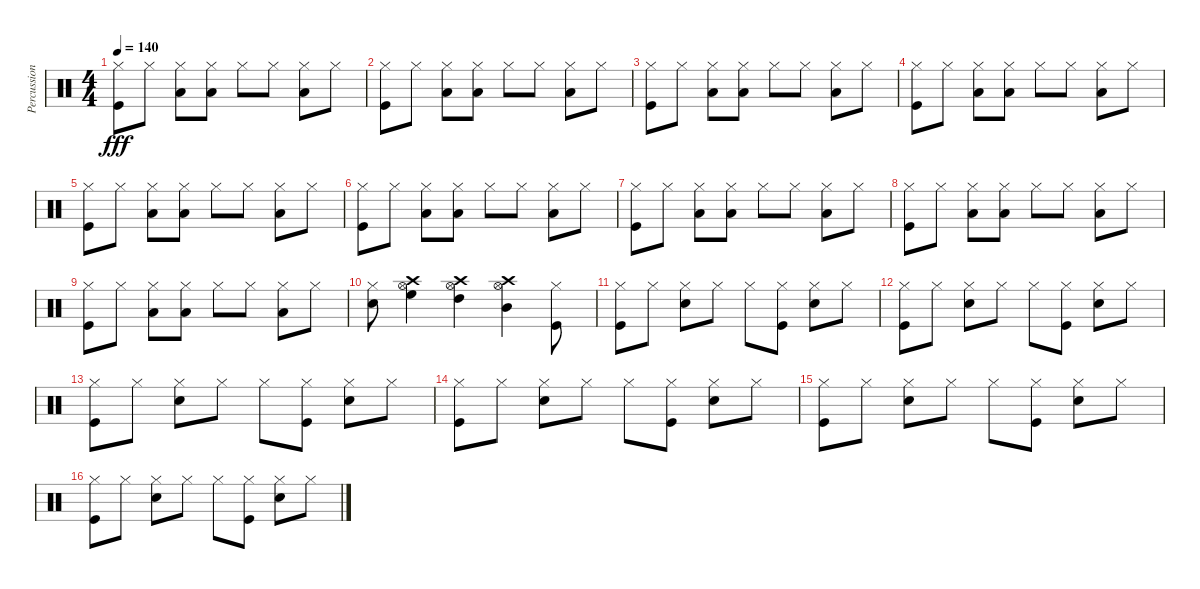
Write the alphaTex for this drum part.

\track ("Percussion" "Percussion") {instrument percussion}
\staff {score}
\articulation defaults
\ts (4 4)
\tempo 140
\clef neutral
\ks c
("Hi-Hat (closed)" "Kick (hit)").8{dy fff} "Hi-Hat (closed)".8 ("Hi-Hat (closed)" "Low Tom (hit)").8 ("Hi-Hat (closed)" "Low Tom (hit)").8 "Hi-Hat (closed)".8 "Hi-Hat (closed)".8 ("Hi-Hat (closed)" "Low Tom (hit)").8 "Hi-Hat (closed)".8 |
("Hi-Hat (closed)" "Kick (hit)").8 "Hi-Hat (closed)".8 ("Hi-Hat (closed)" "Low Tom (hit)").8 ("Hi-Hat (closed)" "Low Tom (hit)").8 "Hi-Hat (closed)".8 "Hi-Hat (closed)".8 ("Hi-Hat (closed)" "Low Tom (hit)").8 "Hi-Hat (closed)".8 |
("Hi-Hat (closed)" "Kick (hit)").8 "Hi-Hat (closed)".8 ("Hi-Hat (closed)" "Low Tom (hit)").8 ("Hi-Hat (closed)" "Low Tom (hit)").8 "Hi-Hat (closed)".8 "Hi-Hat (closed)".8 ("Hi-Hat (closed)" "Low Tom (hit)").8 "Hi-Hat (closed)".8 |
("Hi-Hat (closed)" "Kick (hit)").8 "Hi-Hat (closed)".8 ("Hi-Hat (closed)" "Low Tom (hit)").8 ("Hi-Hat (closed)" "Low Tom (hit)").8 "Hi-Hat (closed)".8 "Hi-Hat (closed)".8 ("Hi-Hat (closed)" "Low Tom (hit)").8 "Hi-Hat (closed)".8 |
("Hi-Hat (closed)" "Kick (hit)").8 "Hi-Hat (closed)".8 ("Hi-Hat (closed)" "Low Tom (hit)").8 ("Hi-Hat (closed)" "Low Tom (hit)").8 "Hi-Hat (closed)".8 "Hi-Hat (closed)".8 ("Hi-Hat (closed)" "Low Tom (hit)").8 "Hi-Hat (closed)".8 |
("Hi-Hat (closed)" "Kick (hit)").8 "Hi-Hat (closed)".8 ("Hi-Hat (closed)" "Low Tom (hit)").8 ("Hi-Hat (closed)" "Low Tom (hit)").8 "Hi-Hat (closed)".8 "Hi-Hat (closed)".8 ("Hi-Hat (closed)" "Low Tom (hit)").8 "Hi-Hat (closed)".8 |
("Hi-Hat (closed)" "Kick (hit)").8 "Hi-Hat (closed)".8 ("Hi-Hat (closed)" "Low Tom (hit)").8 ("Hi-Hat (closed)" "Low Tom (hit)").8 "Hi-Hat (closed)".8 "Hi-Hat (closed)".8 ("Hi-Hat (closed)" "Low Tom (hit)").8 "Hi-Hat (closed)".8 |
("Hi-Hat (closed)" "Kick (hit)").8 "Hi-Hat (closed)".8 ("Hi-Hat (closed)" "Low Tom (hit)").8 ("Hi-Hat (closed)" "Low Tom (hit)").8 "Hi-Hat (closed)".8 "Hi-Hat (closed)".8 ("Hi-Hat (closed)" "Low Tom (hit)").8 "Hi-Hat (closed)".8 |
("Hi-Hat (closed)" "Kick (hit)").8 "Hi-Hat (closed)".8 ("Hi-Hat (closed)" "Low Tom (hit)").8 ("Hi-Hat (closed)" "Low Tom (hit)").8 "Hi-Hat (closed)".8 "Hi-Hat (closed)".8 ("Hi-Hat (closed)" "Low Tom (hit)").8 "Hi-Hat (closed)".8 |
("Hi-Hat (closed)" "Snare (hit) 2").8 ("Hi-Hat (open)" "Crash high (hit)" "High Floor Tom (hit)").4 ("Hi-Hat (open)" "Crash high (hit)" "High Tom (hit)").4 ("Hi-Hat (open)" "Crash high (hit)" "Mid Tom (hit)").4 ("Hi-Hat (closed)" "Kick (hit)").8 |
("Hi-Hat (closed)" "Kick (hit)").8 "Hi-Hat (closed)".8 ("Hi-Hat (closed)" "Snare (hit) 2").8 "Hi-Hat (closed)".8 "Hi-Hat (closed)".8 ("Hi-Hat (closed)" "Kick (hit)").8 ("Hi-Hat (closed)" "Snare (hit) 2").8 "Hi-Hat (closed)".8 |
("Hi-Hat (closed)" "Kick (hit)").8 "Hi-Hat (closed)".8 ("Hi-Hat (closed)" "Snare (hit) 2").8 "Hi-Hat (closed)".8 "Hi-Hat (closed)".8 ("Hi-Hat (closed)" "Kick (hit)").8 ("Hi-Hat (closed)" "Snare (hit) 2").8 "Hi-Hat (closed)".8 |
("Hi-Hat (closed)" "Kick (hit)").8 "Hi-Hat (closed)".8 ("Hi-Hat (closed)" "Snare (hit) 2").8 "Hi-Hat (closed)".8 "Hi-Hat (closed)".8 ("Hi-Hat (closed)" "Kick (hit)").8 ("Hi-Hat (closed)" "Snare (hit) 2").8 "Hi-Hat (closed)".8 |
("Hi-Hat (closed)" "Kick (hit)").8 "Hi-Hat (closed)".8 ("Hi-Hat (closed)" "Snare (hit) 2").8 "Hi-Hat (closed)".8 "Hi-Hat (closed)".8 ("Hi-Hat (closed)" "Kick (hit)").8 ("Hi-Hat (closed)" "Snare (hit) 2").8 "Hi-Hat (closed)".8 |
("Hi-Hat (closed)" "Kick (hit)").8 "Hi-Hat (closed)".8 ("Hi-Hat (closed)" "Snare (hit) 2").8 "Hi-Hat (closed)".8 "Hi-Hat (closed)".8 ("Hi-Hat (closed)" "Kick (hit)").8 ("Hi-Hat (closed)" "Snare (hit) 2").8 "Hi-Hat (closed)".8 |
("Hi-Hat (closed)" "Kick (hit)").8 "Hi-Hat (closed)".8 ("Hi-Hat (closed)" "Snare (hit) 2").8 "Hi-Hat (closed)".8 "Hi-Hat (closed)".8 ("Hi-Hat (closed)" "Kick (hit)").8 ("Hi-Hat (closed)" "Snare (hit) 2").8 "Hi-Hat (closed)".8
